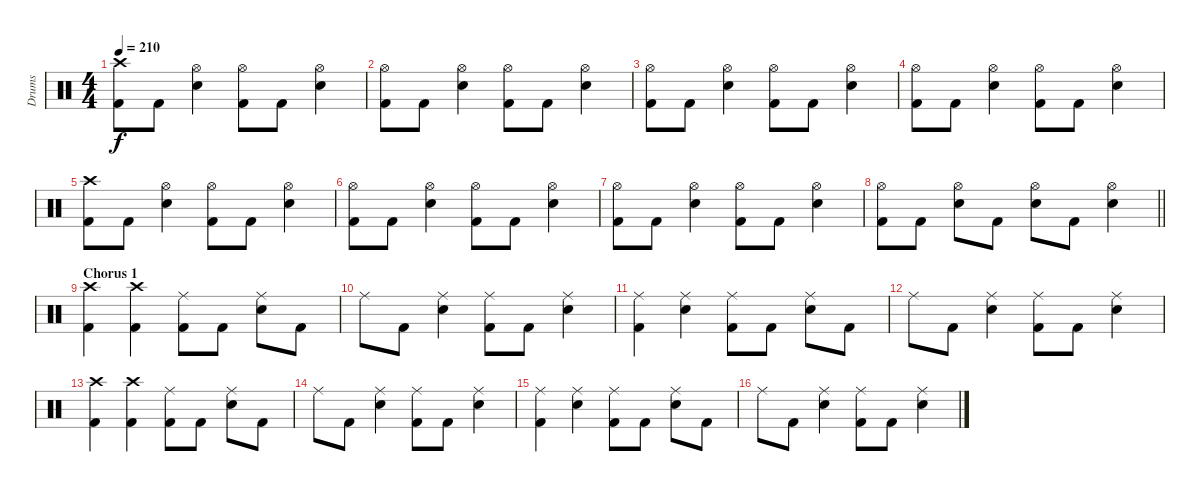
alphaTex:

\track ("Drums" "Drums") {instrument percussion}
\staff {score}
\articulation defaults
\ts (4 4)
\tempo 210
\clef neutral
\ks c
("Crash high (hit)" "Kick (hit) 2").8{dy f} "Kick (hit) 2".8 ("Hi-Hat (open)" "Snare (hit) 2").4 ("Hi-Hat (open)" "Kick (hit) 2").8 "Kick (hit) 2".8 ("Hi-Hat (open)" "Snare (hit) 2").4 |
("Hi-Hat (open)" "Kick (hit) 2").8 "Kick (hit) 2".8 ("Hi-Hat (open)" "Snare (hit) 2").4 ("Hi-Hat (open)" "Kick (hit) 2").8 "Kick (hit) 2".8 ("Hi-Hat (open)" "Snare (hit) 2").4 |
("Hi-Hat (open)" "Kick (hit) 2").8 "Kick (hit) 2".8 ("Hi-Hat (open)" "Snare (hit) 2").4 ("Hi-Hat (open)" "Kick (hit) 2").8 "Kick (hit) 2".8 ("Hi-Hat (open)" "Snare (hit) 2").4 |
("Hi-Hat (open)" "Kick (hit) 2").8 "Kick (hit) 2".8 ("Hi-Hat (open)" "Snare (hit) 2").4 ("Hi-Hat (open)" "Kick (hit) 2").8 "Kick (hit) 2".8 ("Hi-Hat (open)" "Snare (hit) 2").4 |
("Crash high (hit)" "Kick (hit) 2").8 "Kick (hit) 2".8 ("Hi-Hat (open)" "Snare (hit) 2").4 ("Hi-Hat (open)" "Kick (hit) 2").8 "Kick (hit) 2".8 ("Hi-Hat (open)" "Snare (hit) 2").4 |
("Hi-Hat (open)" "Kick (hit) 2").8 "Kick (hit) 2".8 ("Hi-Hat (open)" "Snare (hit) 2").4 ("Hi-Hat (open)" "Kick (hit) 2").8 "Kick (hit) 2".8 ("Hi-Hat (open)" "Snare (hit) 2").4 |
("Hi-Hat (open)" "Kick (hit) 2").8 "Kick (hit) 2".8 ("Hi-Hat (open)" "Snare (hit) 2").4 ("Hi-Hat (open)" "Kick (hit) 2").8 "Kick (hit) 2".8 ("Hi-Hat (open)" "Snare (hit) 2").4 |
\barLineRight lightlight
("Hi-Hat (open)" "Kick (hit) 2").8 "Kick (hit) 2".8 ("Hi-Hat (open)" "Snare (hit) 2").8 "Kick (hit) 2".8 ("Hi-Hat (open)" "Snare (hit) 2").8 "Kick (hit) 2".8 ("Hi-Hat (open)" "Snare (hit) 2").4 |
\section ("" "Chorus 1")
("Crash high (hit)" "Kick (hit) 2").4 ("Crash high (hit)" "Kick (hit) 2").4 ("Ride (middle)" "Kick (hit) 2").8 "Kick (hit) 2".8 ("Ride (middle)" "Snare (hit) 2").8 "Kick (hit) 2".8 |
"Ride (middle)".8 "Kick (hit) 2".8 ("Ride (middle)" "Snare (hit) 2").4 ("Ride (middle)" "Kick (hit) 2").8 "Kick (hit) 2".8 ("Ride (middle)" "Snare (hit) 2").4 |
("Ride (middle)" "Kick (hit) 2").4 ("Ride (middle)" "Snare (hit) 2").4 ("Ride (middle)" "Kick (hit) 2").8 "Kick (hit) 2".8 ("Ride (middle)" "Snare (hit) 2").8 "Kick (hit) 2".8 |
"Ride (middle)".8 "Kick (hit) 2".8 ("Ride (middle)" "Snare (hit) 2").4 ("Ride (middle)" "Kick (hit) 2").8 "Kick (hit) 2".8 ("Ride (middle)" "Snare (hit) 2").4 |
("Crash high (hit)" "Kick (hit) 2").4 ("Crash high (hit)" "Kick (hit) 2").4 ("Ride (middle)" "Kick (hit) 2").8 "Kick (hit) 2".8 ("Ride (middle)" "Snare (hit) 2").8 "Kick (hit) 2".8 |
"Ride (middle)".8 "Kick (hit) 2".8 ("Ride (middle)" "Snare (hit) 2").4 ("Ride (middle)" "Kick (hit) 2").8 "Kick (hit) 2".8 ("Ride (middle)" "Snare (hit) 2").4 |
("Ride (middle)" "Kick (hit) 2").4 ("Ride (middle)" "Snare (hit) 2").4 ("Ride (middle)" "Kick (hit) 2").8 "Kick (hit) 2".8 ("Ride (middle)" "Snare (hit) 2").8 "Kick (hit) 2".8 |
"Ride (middle)".8 "Kick (hit) 2".8 ("Ride (middle)" "Snare (hit) 2").4 ("Ride (middle)" "Kick (hit) 2").8 "Kick (hit) 2".8 ("Ride (middle)" "Snare (hit) 2").4
